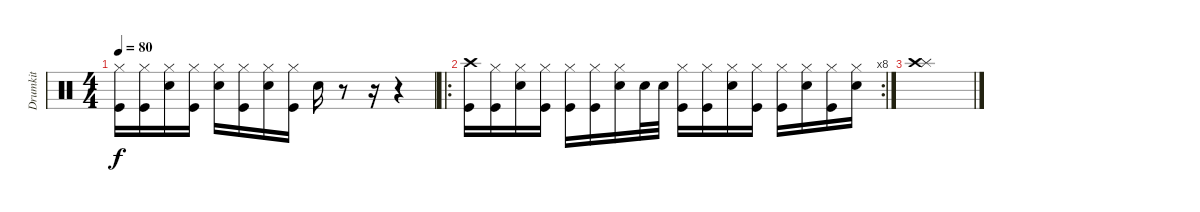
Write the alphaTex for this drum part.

\track ("Drumkit" "Drumkit") {instrument percussion}
\staff {score}
\articulation defaults
\ts (4 4)
\tempo 80
\clef neutral
\ks c
("Hi-Hat (closed)" "Kick (hit)").16{dy f} ("Hi-Hat (closed)" "Kick (hit)").16 ("Hi-Hat (closed)" "Snare (hit) 2").16 ("Hi-Hat (closed)" "Kick (hit)").16 ("Hi-Hat (closed)" "Snare (hit) 2").16 ("Hi-Hat (closed)" "Kick (hit)").16 ("Hi-Hat (closed)" "Snare (hit) 2").16 ("Hi-Hat (closed)" "Kick (hit)").16 "Snare (hit) 2".16 r.8 r.16 r.4 |
\ro
\rc 8
("Crash high (hit)" "Kick (hit)").16 ("Hi-Hat (closed)" "Kick (hit)").16 ("Hi-Hat (closed)" "Snare (hit) 2").16 ("Hi-Hat (closed)" "Kick (hit)").16 ("Hi-Hat (closed)" "Kick (hit)").16 ("Hi-Hat (closed)" "Kick (hit)").16 ("Hi-Hat (closed)" "Snare (hit) 2").16 "Snare (hit) 2".32 "Snare (hit) 2".32 ("Hi-Hat (closed)" "Kick (hit)").16 ("Hi-Hat (closed)" "Kick (hit)").16 ("Hi-Hat (closed)" "Snare (hit) 2").16 ("Hi-Hat (closed)" "Kick (hit)").16 ("Hi-Hat (closed)" "Kick (hit)").16 ("Hi-Hat (closed)" "Snare (hit) 2").16 ("Hi-Hat (closed)" "Kick (hit)").16 ("Hi-Hat (closed)" "Snare (hit) 2").16 |
("Splash (hit)" "Crash high (hit)").1
